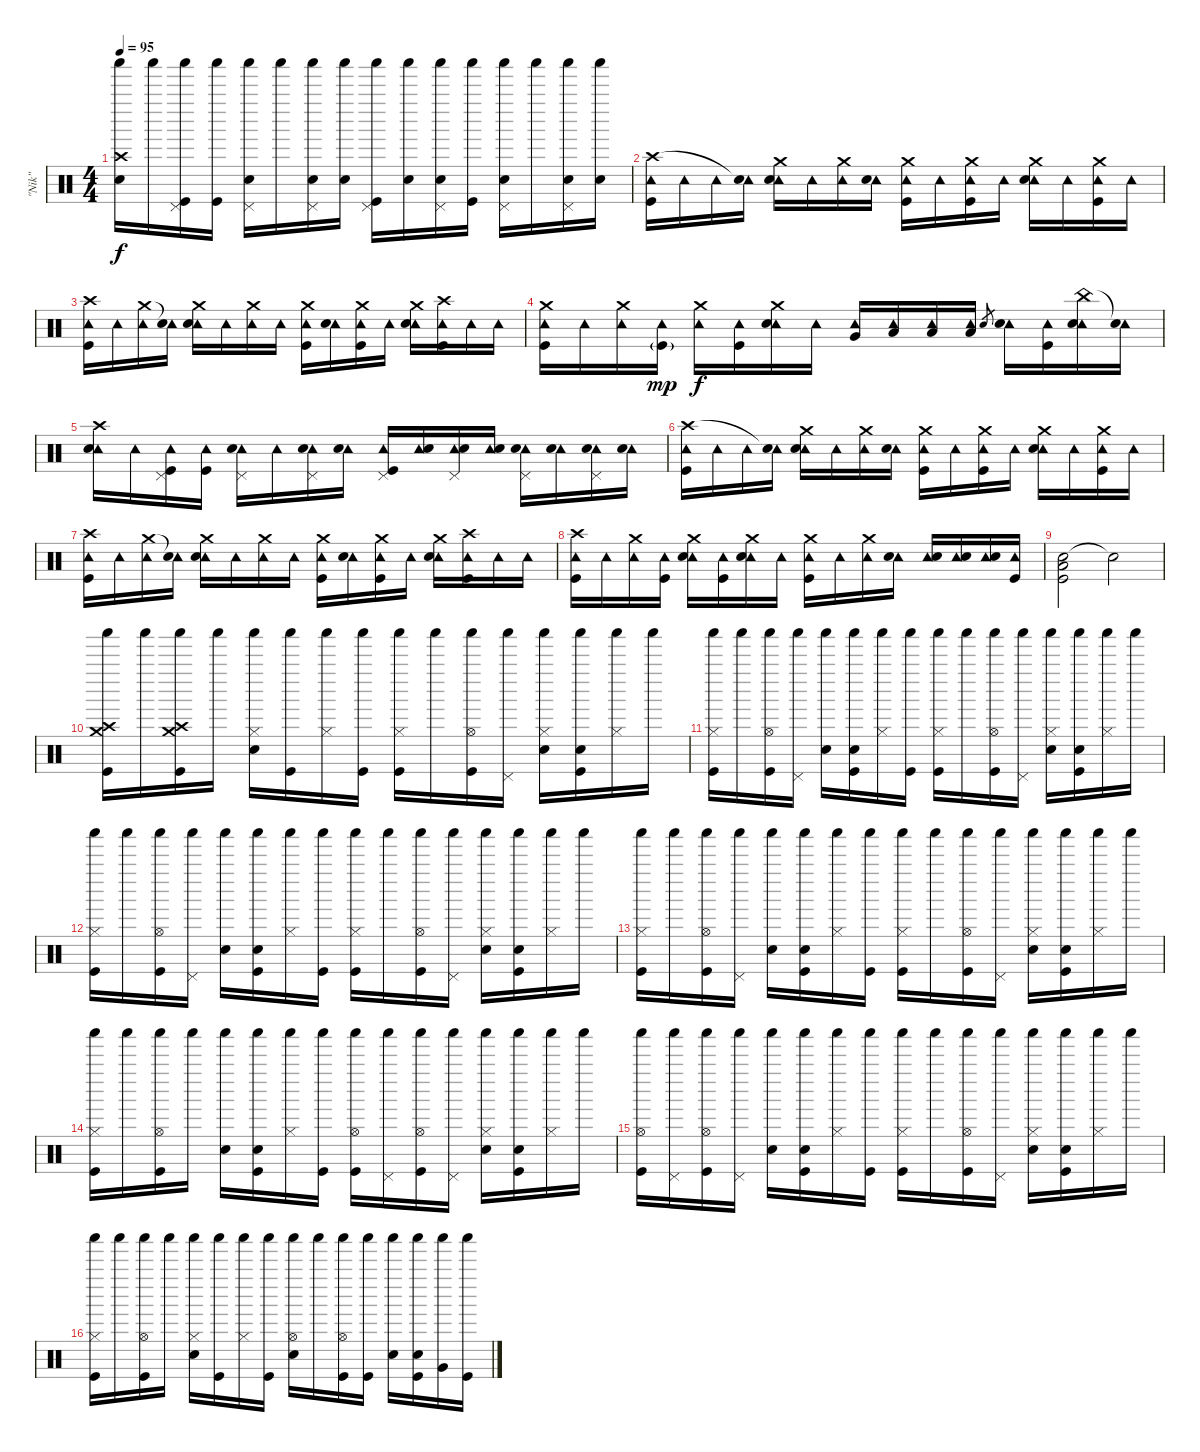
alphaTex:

\track ("\"Nik\"" "\"Nik\"") {instrument percussion}
\staff {score}
\articulation defaults
\ts (4 4)
\tempo 95
\clef neutral
\ks c
("Shaker (hit)" "Crash high (hit)" "Snare (hit) 2").16{dy f} "Shaker (hit)".16 ("Shaker (hit)" "Pedal Hi-Hat (hit)" "Kick (hit)").16 ("Shaker (hit)" "Kick (hit)").16 ("Shaker (hit)" "Pedal Hi-Hat (hit)" "Snare (hit) 2").16 "Shaker (hit)".16 ("Shaker (hit)" "Pedal Hi-Hat (hit)" "Snare (hit) 2").16 ("Shaker (hit)" "Snare (hit) 2").16 ("Shaker (hit)" "Pedal Hi-Hat (hit)" "Kick (hit)").16 ("Shaker (hit)" "Snare (hit) 2").16 ("Shaker (hit)" "Pedal Hi-Hat (hit)" "Snare (hit) 2").16 ("Shaker (hit)" "Kick (hit)").16 ("Shaker (hit)" "Pedal Hi-Hat (hit)" "Snare (hit) 2").16 "Shaker (hit)".16 ("Shaker (hit)" "Pedal Hi-Hat (hit)" "Snare (hit) 2").16 ("Shaker (hit)" "Snare (hit) 2").16 |
("Tambourine (hit)" "Crash high (hit)" "Kick (hit)").16 "Tambourine (hit)".16 "Tambourine (hit)".16 ("Tambourine (hit)" "Snare (hit)"{t}).16 ("Tambourine (hit)" "Crash medium (hit)" "Snare (hit) 2").16 "Tambourine (hit)".16 ("Tambourine (hit)" "Crash medium (hit)").16 ("Tambourine (hit)" "Snare (hit) 2").16 ("Tambourine (hit)" "Crash medium (hit)" "Kick (hit)").16 "Tambourine (hit)".16 ("Tambourine (hit)" "Crash medium (hit)" "Kick (hit)").16 "Tambourine (hit)".16 ("Tambourine (hit)" "Crash medium (hit)" "Snare (hit) 2").16 "Tambourine (hit)".16 ("Tambourine (hit)" "Crash medium (hit)" "Kick (hit)").16 "Tambourine (hit)".16 |
("Tambourine (hit)" "Crash high (hit)" "Kick (hit)").16 "Tambourine (hit)".16 ("Tambourine (hit)" "Crash medium (hit)").16 ("Tambourine (hit)" "Snare (hit)"{t}).16 ("Tambourine (hit)" "Crash medium (hit)" "Snare (hit) 2").16 "Tambourine (hit)".16 ("Tambourine (hit)" "Crash medium (hit)").16 "Tambourine (hit)".16 ("Tambourine (hit)" "Crash medium (hit)" "Kick (hit)").16 ("Tambourine (hit)" "Snare (hit) 2").16 ("Tambourine (hit)" "Crash medium (hit)" "Kick (hit)").16 "Tambourine (hit)".16 ("Tambourine (hit)" "Crash medium (hit)" "Snare (hit) 2").16 ("Tambourine (hit)" "Crash high (hit)" "Kick (hit)").16 "Tambourine (hit)".16 "Tambourine (hit)".16 |
("Tambourine (hit)" "Crash medium (hit)" "Kick (hit)").16 "Tambourine (hit)".16 ("Tambourine (hit)" "Crash medium (hit)").16 ("Tambourine (hit)" "Kick (hit)"{g}).16{dy mp} ("Tambourine (hit)" "Crash medium (hit)").16{dy f} ("Tambourine (hit)" "Kick (hit)").16 ("Tambourine (hit)" "Crash medium (hit)" "Snare (hit) 2").16 "Tambourine (hit)".16 ("Tambourine (hit)" "Very Low Tom (hit)").16 ("Tambourine (hit)" "Low Tom (hit)").16 ("Tambourine (hit)" "Low Tom (hit)").16 ("Tambourine (hit)" "Low Floor Tom (hit)").16 "Snare (hit) 2".8{gr} ("Tambourine (hit)" "Snare (hit) 2").16 ("Tambourine (hit)" "Kick (hit)").16 ("Tambourine (hit)" "China (hit)" "Snare (hit) 2").16 ("Tambourine (hit)" "Snare (hit)"{t}).16 |
("Tambourine (hit)" "Crash high (hit)" "Snare (hit) 2").16 "Tambourine (hit)".16 ("Tambourine (hit)" "Pedal Hi-Hat (hit)" "Kick (hit)").16 ("Tambourine (hit)" "Kick (hit)").16 ("Tambourine (hit)" "Pedal Hi-Hat (hit)" "Snare (hit) 2").16 "Tambourine (hit)".16 ("Tambourine (hit)" "Pedal Hi-Hat (hit)" "Snare (hit) 2").16 ("Tambourine (hit)" "Snare (hit) 2").16 ("Tambourine (hit)" "Pedal Hi-Hat (hit)" "Kick (hit)").16 ("Tambourine (hit)" "Snare (hit) 2").16 ("Tambourine (hit)" "Pedal Hi-Hat (hit)" "Snare (hit) 2").16 ("Tambourine (hit)" "Snare (hit) 2").16 ("Tambourine (hit)" "Pedal Hi-Hat (hit)" "Snare (hit) 2").16 ("Tambourine (hit)" "Snare (hit) 2").16 ("Tambourine (hit)" "Pedal Hi-Hat (hit)" "Snare (hit) 2").16 ("Tambourine (hit)" "Snare (hit) 2").16 |
("Tambourine (hit)" "Crash high (hit)" "Kick (hit)").16 "Tambourine (hit)".16 "Tambourine (hit)".16 ("Tambourine (hit)" "Snare (hit)"{t}).16 ("Tambourine (hit)" "Crash medium (hit)" "Snare (hit) 2").16 "Tambourine (hit)".16 ("Tambourine (hit)" "Crash medium (hit)").16 ("Tambourine (hit)" "Snare (hit) 2").16 ("Tambourine (hit)" "Crash medium (hit)" "Kick (hit)").16 "Tambourine (hit)".16 ("Tambourine (hit)" "Crash medium (hit)" "Kick (hit)").16 "Tambourine (hit)".16 ("Tambourine (hit)" "Crash medium (hit)" "Snare (hit) 2").16 "Tambourine (hit)".16 ("Tambourine (hit)" "Crash medium (hit)" "Kick (hit)").16 "Tambourine (hit)".16 |
("Tambourine (hit)" "Crash high (hit)" "Kick (hit)").16 "Tambourine (hit)".16 ("Tambourine (hit)" "Crash medium (hit)").16 ("Tambourine (hit)" "Snare (hit)"{t}).16 ("Tambourine (hit)" "Crash medium (hit)" "Snare (hit) 2").16 "Tambourine (hit)".16 ("Tambourine (hit)" "Crash medium (hit)").16 "Tambourine (hit)".16 ("Tambourine (hit)" "Crash medium (hit)" "Kick (hit)").16 ("Tambourine (hit)" "Snare (hit) 2").16 ("Tambourine (hit)" "Crash medium (hit)" "Kick (hit)").16 "Tambourine (hit)".16 ("Tambourine (hit)" "Crash medium (hit)" "Snare (hit) 2").16 ("Tambourine (hit)" "Crash high (hit)" "Kick (hit)").16 "Tambourine (hit)".16 "Tambourine (hit)".16 |
("Tambourine (hit)" "Crash high (hit)" "Kick (hit)").16 "Tambourine (hit)".16 ("Tambourine (hit)" "Crash medium (hit)").16 ("Tambourine (hit)" "Kick (hit)").16 ("Tambourine (hit)" "Crash medium (hit)" "Snare (hit) 2").16 ("Tambourine (hit)" "Kick (hit)").16 ("Tambourine (hit)" "Crash medium (hit)" "Snare (hit) 2").16 "Tambourine (hit)".16 ("Tambourine (hit)" "Crash medium (hit)" "Kick (hit)").16 "Tambourine (hit)".16 ("Tambourine (hit)" "Crash medium (hit)").16 ("Tambourine (hit)" "Snare (hit) 2").16 ("Tambourine (hit)" "Snare (hit) 2").16 ("Tambourine (hit)" "Snare (hit) 2").16 ("Tambourine (hit)" "Snare (hit) 2").16 ("Tambourine (hit)" "Kick (hit)").16 |
("Snare (hit) 2" "Low Floor Tom (hit)" "Kick (hit)").2 "Snare (hit)"{t}.2 |
("Shaker (hit)" "Crash medium (hit)" "Crash high (hit)" "Kick (hit)").16 "Shaker (hit)".16 ("Shaker (hit)" "Crash medium (hit)" "Crash high (hit)" "Kick (hit)").16 "Shaker (hit)".16 ("Shaker (hit)" "Hi-Hat (closed)" "Snare (hit) 2").16 ("Shaker (hit)" "Kick (hit)").16 ("Shaker (hit)" "Hi-Hat (closed)").16 ("Shaker (hit)" "Kick (hit)").16 ("Shaker (hit)" "Hi-Hat (closed)" "Kick (hit)").16 "Shaker (hit)".16 ("Shaker (hit)" "Hi-Hat (open)" "Kick (hit)").16 ("Shaker (hit)" "Pedal Hi-Hat (hit)").16 ("Shaker (hit)" "Hi-Hat (closed)" "Snare (hit) 2").16 ("Shaker (hit)" "Snare (hit)"{x} "Kick (hit)").16 ("Shaker (hit)" "Hi-Hat (closed)").16 "Shaker (hit)".16 |
("Shaker (hit)" "Hi-Hat (closed)" "Kick (hit)").16 "Shaker (hit)".16 ("Shaker (hit)" "Hi-Hat (open)" "Kick (hit)").16 ("Shaker (hit)" "Pedal Hi-Hat (hit)").16 ("Shaker (hit)" "Snare (hit) 2").16 ("Shaker (hit)" "Snare (hit)"{x} "Kick (hit)").16 ("Shaker (hit)" "Hi-Hat (closed)").16 ("Shaker (hit)" "Kick (hit)").16 ("Shaker (hit)" "Hi-Hat (closed)" "Kick (hit)").16 "Shaker (hit)".16 ("Shaker (hit)" "Hi-Hat (open)" "Kick (hit)").16 ("Shaker (hit)" "Pedal Hi-Hat (hit)").16 ("Shaker (hit)" "Hi-Hat (closed)" "Snare (hit) 2").16 ("Shaker (hit)" "Snare (hit)"{x} "Kick (hit)").16 ("Shaker (hit)" "Hi-Hat (closed)").16 "Shaker (hit)".16 |
("Shaker (hit)" "Hi-Hat (closed)" "Kick (hit)").16 "Shaker (hit)".16 ("Shaker (hit)" "Hi-Hat (open)" "Kick (hit)").16 ("Shaker (hit)" "Pedal Hi-Hat (hit)").16 ("Shaker (hit)" "Snare (hit) 2").16 ("Shaker (hit)" "Snare (hit)"{x} "Kick (hit)").16 ("Shaker (hit)" "Hi-Hat (closed)").16 ("Shaker (hit)" "Kick (hit)").16 ("Shaker (hit)" "Hi-Hat (closed)" "Kick (hit)").16 "Shaker (hit)".16 ("Shaker (hit)" "Hi-Hat (open)" "Kick (hit)").16 ("Shaker (hit)" "Pedal Hi-Hat (hit)").16 ("Shaker (hit)" "Hi-Hat (closed)" "Snare (hit) 2").16 ("Shaker (hit)" "Snare (hit)"{x} "Kick (hit)").16 ("Shaker (hit)" "Hi-Hat (closed)").16 "Shaker (hit)".16 |
("Shaker (hit)" "Hi-Hat (closed)" "Kick (hit)").16 "Shaker (hit)".16 ("Shaker (hit)" "Hi-Hat (open)" "Kick (hit)").16 ("Shaker (hit)" "Pedal Hi-Hat (hit)").16 ("Shaker (hit)" "Snare (hit) 2").16 ("Shaker (hit)" "Snare (hit)"{x} "Kick (hit)").16 ("Shaker (hit)" "Hi-Hat (closed)").16 ("Shaker (hit)" "Kick (hit)").16 ("Shaker (hit)" "Hi-Hat (closed)" "Kick (hit)").16 "Shaker (hit)".16 ("Shaker (hit)" "Hi-Hat (open)" "Kick (hit)").16 ("Shaker (hit)" "Pedal Hi-Hat (hit)").16 ("Shaker (hit)" "Hi-Hat (closed)" "Snare (hit) 2").16 ("Shaker (hit)" "Snare (hit)"{x} "Kick (hit)").16 ("Shaker (hit)" "Hi-Hat (closed)").16 "Shaker (hit)".16 |
("Shaker (hit)" "Hi-Hat (closed)" "Kick (hit)").16 "Shaker (hit)".16 ("Shaker (hit)" "Hi-Hat (open)" "Kick (hit)").16 "Shaker (hit)".16 ("Shaker (hit)" "Snare (hit) 2").16 ("Shaker (hit)" "Snare (hit)"{x} "Kick (hit)").16 ("Shaker (hit)" "Hi-Hat (closed)").16 ("Shaker (hit)" "Kick (hit)").16 ("Shaker (hit)" "Hi-Hat (open)" "Kick (hit)").16 ("Shaker (hit)" "Pedal Hi-Hat (hit)").16 ("Shaker (hit)" "Hi-Hat (open)" "Kick (hit)").16 ("Shaker (hit)" "Pedal Hi-Hat (hit)").16 ("Shaker (hit)" "Hi-Hat (closed)" "Snare (hit) 2").16 ("Shaker (hit)" "Snare (hit)"{x} "Kick (hit)").16 ("Shaker (hit)" "Hi-Hat (closed)").16 "Shaker (hit)".16 |
("Shaker (hit)" "Hi-Hat (open)" "Kick (hit)").16 ("Shaker (hit)" "Pedal Hi-Hat (hit)").16 ("Shaker (hit)" "Hi-Hat (open)" "Kick (hit)").16 ("Shaker (hit)" "Pedal Hi-Hat (hit)").16 ("Shaker (hit)" "Snare (hit) 2").16 ("Shaker (hit)" "Snare (hit)"{x} "Kick (hit)").16 ("Shaker (hit)" "Hi-Hat (closed)").16 ("Shaker (hit)" "Kick (hit)").16 ("Shaker (hit)" "Hi-Hat (closed)" "Kick (hit)").16 "Shaker (hit)".16 ("Shaker (hit)" "Hi-Hat (open)" "Kick (hit)").16 ("Shaker (hit)" "Pedal Hi-Hat (hit)").16 ("Shaker (hit)" "Hi-Hat (closed)" "Snare (hit) 2").16 ("Shaker (hit)" "Snare (hit)"{x} "Kick (hit)").16 ("Shaker (hit)" "Hi-Hat (closed)").16 "Shaker (hit)".16 |
("Shaker (hit)" "Hi-Hat (closed)" "Kick (hit)").16 "Shaker (hit)".16 ("Shaker (hit)" "Hi-Hat (open)" "Kick (hit)").16 "Shaker (hit)".16 ("Shaker (hit)" "Hi-Hat (closed)" "Snare (hit) 2").16 ("Shaker (hit)" "Kick (hit)").16 ("Shaker (hit)" "Hi-Hat (closed)").16 ("Shaker (hit)" "Kick (hit)").16 ("Shaker (hit)" "Hi-Hat (open)" "Snare (hit) 2").16 "Shaker (hit)".16 ("Shaker (hit)" "Hi-Hat (open)" "Kick (hit)").16 ("Shaker (hit)" "Kick (hit)").16 ("Shaker (hit)" "Snare (hit) 2").16 ("Shaker (hit)" "Snare (hit) 2" "Kick (hit)").16 ("Shaker (hit)" "Very Low Tom (hit)").16 ("Shaker (hit)" "Kick (hit)").16
